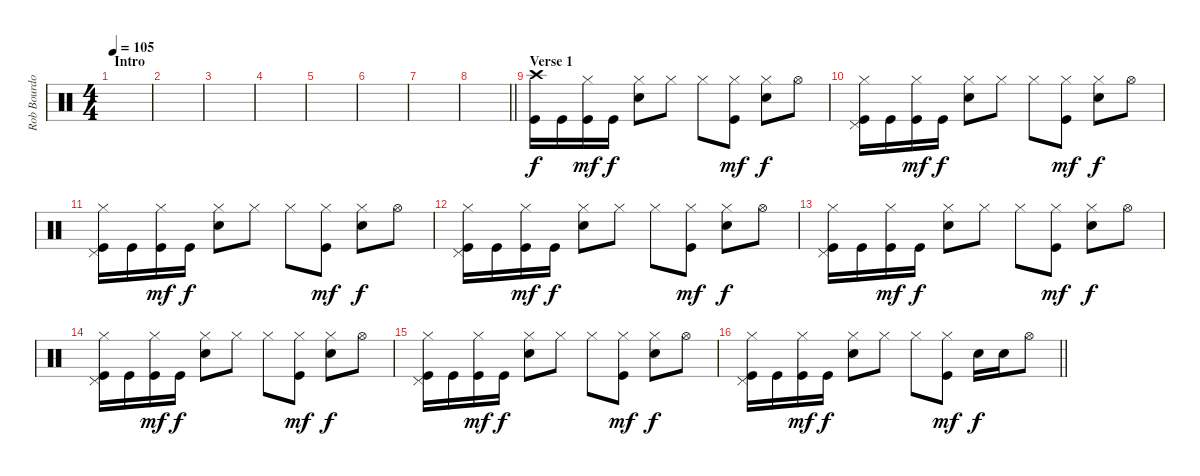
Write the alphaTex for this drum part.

\track ("Rob Bourdon - Drums" "Rob Bourdo") {instrument percussion}
\staff {score}
\articulation defaults
\ts (4 4)
\section ("" "Intro")
\tempo 105
\clef neutral
\ks c
|
|
|
|
|
|
|
\barLineRight lightlight
|
\section ("" "Verse 1")
("Crash high (hit)" "Kick (hit)").16 "Kick (hit)".16{dy f} ("Hi-Hat (closed)" "Kick (hit)").16{dy mf} "Kick (hit)".16{dy f} ("Hi-Hat (closed)" "Electric Snare (hit)").8 "Hi-Hat (closed)".8 "Hi-Hat (closed)".8 ("Hi-Hat (closed)" "Kick (hit)").8{dy mf} ("Hi-Hat (closed)" "Electric Snare (hit)").8{dy f} "Hi-Hat (open)".8 |
("Hi-Hat (closed)" "Pedal Hi-Hat (hit)" "Kick (hit)").16 "Kick (hit)".16 ("Hi-Hat (closed)" "Kick (hit)").16{dy mf} "Kick (hit)".16{dy f} ("Hi-Hat (closed)" "Electric Snare (hit)").8 "Hi-Hat (closed)".8 "Hi-Hat (closed)".8 ("Hi-Hat (closed)" "Kick (hit)").8{dy mf} ("Hi-Hat (closed)" "Electric Snare (hit)").8{dy f} "Hi-Hat (open)".8 |
("Hi-Hat (closed)" "Pedal Hi-Hat (hit)" "Kick (hit)").16 "Kick (hit)".16 ("Hi-Hat (closed)" "Kick (hit)").16{dy mf} "Kick (hit)".16{dy f} ("Hi-Hat (closed)" "Electric Snare (hit)").8 "Hi-Hat (closed)".8 "Hi-Hat (closed)".8 ("Hi-Hat (closed)" "Kick (hit)").8{dy mf} ("Hi-Hat (closed)" "Electric Snare (hit)").8{dy f} "Hi-Hat (open)".8 |
("Hi-Hat (closed)" "Pedal Hi-Hat (hit)" "Kick (hit)").16 "Kick (hit)".16 ("Hi-Hat (closed)" "Kick (hit)").16{dy mf} "Kick (hit)".16{dy f} ("Hi-Hat (closed)" "Electric Snare (hit)").8 "Hi-Hat (closed)".8 "Hi-Hat (closed)".8 ("Hi-Hat (closed)" "Kick (hit)").8{dy mf} ("Hi-Hat (closed)" "Electric Snare (hit)").8{dy f} "Hi-Hat (open)".8 |
("Hi-Hat (closed)" "Pedal Hi-Hat (hit)" "Kick (hit)").16 "Kick (hit)".16 ("Hi-Hat (closed)" "Kick (hit)").16{dy mf} "Kick (hit)".16{dy f} ("Hi-Hat (closed)" "Electric Snare (hit)").8 "Hi-Hat (closed)".8 "Hi-Hat (closed)".8 ("Hi-Hat (closed)" "Kick (hit)").8{dy mf} ("Hi-Hat (closed)" "Electric Snare (hit)").8{dy f} "Hi-Hat (open)".8 |
("Hi-Hat (closed)" "Pedal Hi-Hat (hit)" "Kick (hit)").16 "Kick (hit)".16 ("Hi-Hat (closed)" "Kick (hit)").16{dy mf} "Kick (hit)".16{dy f} ("Hi-Hat (closed)" "Electric Snare (hit)").8 "Hi-Hat (closed)".8 "Hi-Hat (closed)".8 ("Hi-Hat (closed)" "Kick (hit)").8{dy mf} ("Hi-Hat (closed)" "Electric Snare (hit)").8{dy f} "Hi-Hat (open)".8 |
("Hi-Hat (closed)" "Pedal Hi-Hat (hit)" "Kick (hit)").16 "Kick (hit)".16 ("Hi-Hat (closed)" "Kick (hit)").16{dy mf} "Kick (hit)".16{dy f} ("Hi-Hat (closed)" "Electric Snare (hit)").8 "Hi-Hat (closed)".8 "Hi-Hat (closed)".8 ("Hi-Hat (closed)" "Kick (hit)").8{dy mf} ("Hi-Hat (closed)" "Electric Snare (hit)").8{dy f} "Hi-Hat (open)".8 |
\barLineRight lightlight
("Hi-Hat (closed)" "Pedal Hi-Hat (hit)" "Kick (hit)").16 "Kick (hit)".16 ("Hi-Hat (closed)" "Kick (hit)").16{dy mf} "Kick (hit)".16{dy f} ("Hi-Hat (closed)" "Electric Snare (hit)").8 "Hi-Hat (closed)".8 "Hi-Hat (closed)".8 ("Hi-Hat (closed)" "Kick (hit)").8{dy mf} "Electric Snare (hit)".16{dy f} "Electric Snare (hit)".16 "Hi-Hat (open)".8
